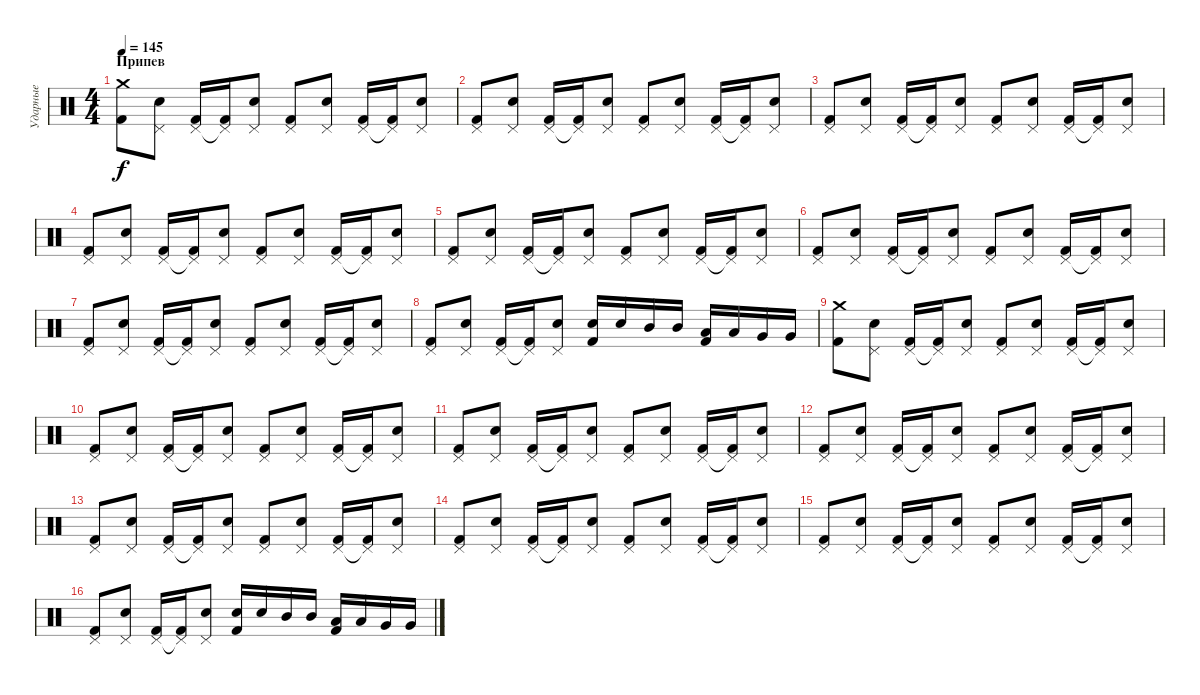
\track ("Ударные" "Ударные") {instrument percussion}
\staff {score}
\articulation defaults
\ts (4 4)
\section ("" "Припев")
\tempo 145
\clef neutral
\ks c
("Crash medium (hit)" "Kick (hit) 2").8{dy f} ("Pedal Hi-Hat (hit)" "Electric Snare (hit)").8 ("Pedal Hi-Hat (hit)" "Kick (hit) 2").16 ("Pedal Hi-Hat (hit)"{t} "Kick (hit) 2").16 ("Pedal Hi-Hat (hit)" "Electric Snare (hit)").8 ("Pedal Hi-Hat (hit)" "Kick (hit) 2").8 ("Pedal Hi-Hat (hit)" "Electric Snare (hit)").8 ("Pedal Hi-Hat (hit)" "Kick (hit) 2").16 ("Pedal Hi-Hat (hit)"{t} "Kick (hit) 2").16 ("Pedal Hi-Hat (hit)" "Electric Snare (hit)").8 |
("Pedal Hi-Hat (hit)" "Kick (hit) 2").8 ("Pedal Hi-Hat (hit)" "Electric Snare (hit)").8 ("Pedal Hi-Hat (hit)" "Kick (hit) 2").16 ("Pedal Hi-Hat (hit)"{t} "Kick (hit) 2").16 ("Pedal Hi-Hat (hit)" "Electric Snare (hit)").8 ("Pedal Hi-Hat (hit)" "Kick (hit) 2").8 ("Pedal Hi-Hat (hit)" "Electric Snare (hit)").8 ("Pedal Hi-Hat (hit)" "Kick (hit) 2").16 ("Pedal Hi-Hat (hit)"{t} "Kick (hit) 2").16 ("Pedal Hi-Hat (hit)" "Electric Snare (hit)").8 |
("Pedal Hi-Hat (hit)" "Kick (hit) 2").8 ("Pedal Hi-Hat (hit)" "Electric Snare (hit)").8 ("Pedal Hi-Hat (hit)" "Kick (hit) 2").16 ("Pedal Hi-Hat (hit)"{t} "Kick (hit) 2").16 ("Pedal Hi-Hat (hit)" "Electric Snare (hit)").8 ("Pedal Hi-Hat (hit)" "Kick (hit) 2").8 ("Pedal Hi-Hat (hit)" "Electric Snare (hit)").8 ("Pedal Hi-Hat (hit)" "Kick (hit) 2").16 ("Pedal Hi-Hat (hit)"{t} "Kick (hit) 2").16 ("Pedal Hi-Hat (hit)" "Electric Snare (hit)").8 |
("Pedal Hi-Hat (hit)" "Kick (hit) 2").8 ("Pedal Hi-Hat (hit)" "Electric Snare (hit)").8 ("Pedal Hi-Hat (hit)" "Kick (hit) 2").16 ("Pedal Hi-Hat (hit)"{t} "Kick (hit) 2").16 ("Pedal Hi-Hat (hit)" "Electric Snare (hit)").8 ("Pedal Hi-Hat (hit)" "Kick (hit) 2").8 ("Pedal Hi-Hat (hit)" "Electric Snare (hit)").8 ("Pedal Hi-Hat (hit)" "Kick (hit) 2").16 ("Pedal Hi-Hat (hit)"{t} "Kick (hit) 2").16 ("Pedal Hi-Hat (hit)" "Electric Snare (hit)").8 |
("Pedal Hi-Hat (hit)" "Kick (hit) 2").8 ("Pedal Hi-Hat (hit)" "Electric Snare (hit)").8 ("Pedal Hi-Hat (hit)" "Kick (hit) 2").16 ("Pedal Hi-Hat (hit)"{t} "Kick (hit) 2").16 ("Pedal Hi-Hat (hit)" "Electric Snare (hit)").8 ("Pedal Hi-Hat (hit)" "Kick (hit) 2").8 ("Pedal Hi-Hat (hit)" "Electric Snare (hit)").8 ("Pedal Hi-Hat (hit)" "Kick (hit) 2").16 ("Pedal Hi-Hat (hit)"{t} "Kick (hit) 2").16 ("Pedal Hi-Hat (hit)" "Electric Snare (hit)").8 |
("Pedal Hi-Hat (hit)" "Kick (hit) 2").8 ("Pedal Hi-Hat (hit)" "Electric Snare (hit)").8 ("Pedal Hi-Hat (hit)" "Kick (hit) 2").16 ("Pedal Hi-Hat (hit)"{t} "Kick (hit) 2").16 ("Pedal Hi-Hat (hit)" "Electric Snare (hit)").8 ("Pedal Hi-Hat (hit)" "Kick (hit) 2").8 ("Pedal Hi-Hat (hit)" "Electric Snare (hit)").8 ("Pedal Hi-Hat (hit)" "Kick (hit) 2").16 ("Pedal Hi-Hat (hit)"{t} "Kick (hit) 2").16 ("Pedal Hi-Hat (hit)" "Electric Snare (hit)").8 |
("Pedal Hi-Hat (hit)" "Kick (hit) 2").8 ("Pedal Hi-Hat (hit)" "Electric Snare (hit)").8 ("Pedal Hi-Hat (hit)" "Kick (hit) 2").16 ("Pedal Hi-Hat (hit)"{t} "Kick (hit) 2").16 ("Pedal Hi-Hat (hit)" "Electric Snare (hit)").8 ("Pedal Hi-Hat (hit)" "Kick (hit) 2").8 ("Pedal Hi-Hat (hit)" "Electric Snare (hit)").8 ("Pedal Hi-Hat (hit)" "Kick (hit) 2").16 ("Pedal Hi-Hat (hit)"{t} "Kick (hit) 2").16 ("Pedal Hi-Hat (hit)" "Electric Snare (hit)").8 |
("Pedal Hi-Hat (hit)" "Kick (hit) 2").8 ("Pedal Hi-Hat (hit)" "Electric Snare (hit)").8 ("Pedal Hi-Hat (hit)" "Kick (hit) 2").16 ("Pedal Hi-Hat (hit)"{t} "Kick (hit) 2").16 ("Pedal Hi-Hat (hit)" "Electric Snare (hit)").8 ("Electric Snare (hit)" "Kick (hit) 2").16 "Electric Snare (hit)".16 "Mid Tom (hit)".16 "Mid Tom (hit)".16 ("Low Tom (hit)" "Kick (hit) 2").16 "Low Tom (hit)".16 "Very Low Tom (hit)".16 "Very Low Tom (hit)".16 |
("Crash medium (hit)" "Kick (hit) 2").8 ("Pedal Hi-Hat (hit)" "Electric Snare (hit)").8 ("Pedal Hi-Hat (hit)" "Kick (hit) 2").16 ("Pedal Hi-Hat (hit)"{t} "Kick (hit) 2").16 ("Pedal Hi-Hat (hit)" "Electric Snare (hit)").8 ("Pedal Hi-Hat (hit)" "Kick (hit) 2").8 ("Pedal Hi-Hat (hit)" "Electric Snare (hit)").8 ("Pedal Hi-Hat (hit)" "Kick (hit) 2").16 ("Pedal Hi-Hat (hit)"{t} "Kick (hit) 2").16 ("Pedal Hi-Hat (hit)" "Electric Snare (hit)").8 |
("Pedal Hi-Hat (hit)" "Kick (hit) 2").8 ("Pedal Hi-Hat (hit)" "Electric Snare (hit)").8 ("Pedal Hi-Hat (hit)" "Kick (hit) 2").16 ("Pedal Hi-Hat (hit)"{t} "Kick (hit) 2").16 ("Pedal Hi-Hat (hit)" "Electric Snare (hit)").8 ("Pedal Hi-Hat (hit)" "Kick (hit) 2").8 ("Pedal Hi-Hat (hit)" "Electric Snare (hit)").8 ("Pedal Hi-Hat (hit)" "Kick (hit) 2").16 ("Pedal Hi-Hat (hit)"{t} "Kick (hit) 2").16 ("Pedal Hi-Hat (hit)" "Electric Snare (hit)").8 |
("Pedal Hi-Hat (hit)" "Kick (hit) 2").8 ("Pedal Hi-Hat (hit)" "Electric Snare (hit)").8 ("Pedal Hi-Hat (hit)" "Kick (hit) 2").16 ("Pedal Hi-Hat (hit)"{t} "Kick (hit) 2").16 ("Pedal Hi-Hat (hit)" "Electric Snare (hit)").8 ("Pedal Hi-Hat (hit)" "Kick (hit) 2").8 ("Pedal Hi-Hat (hit)" "Electric Snare (hit)").8 ("Pedal Hi-Hat (hit)" "Kick (hit) 2").16 ("Pedal Hi-Hat (hit)"{t} "Kick (hit) 2").16 ("Pedal Hi-Hat (hit)" "Electric Snare (hit)").8 |
("Pedal Hi-Hat (hit)" "Kick (hit) 2").8 ("Pedal Hi-Hat (hit)" "Electric Snare (hit)").8 ("Pedal Hi-Hat (hit)" "Kick (hit) 2").16 ("Pedal Hi-Hat (hit)"{t} "Kick (hit) 2").16 ("Pedal Hi-Hat (hit)" "Electric Snare (hit)").8 ("Pedal Hi-Hat (hit)" "Kick (hit) 2").8 ("Pedal Hi-Hat (hit)" "Electric Snare (hit)").8 ("Pedal Hi-Hat (hit)" "Kick (hit) 2").16 ("Pedal Hi-Hat (hit)"{t} "Kick (hit) 2").16 ("Pedal Hi-Hat (hit)" "Electric Snare (hit)").8 |
("Pedal Hi-Hat (hit)" "Kick (hit) 2").8 ("Pedal Hi-Hat (hit)" "Electric Snare (hit)").8 ("Pedal Hi-Hat (hit)" "Kick (hit) 2").16 ("Pedal Hi-Hat (hit)"{t} "Kick (hit) 2").16 ("Pedal Hi-Hat (hit)" "Electric Snare (hit)").8 ("Pedal Hi-Hat (hit)" "Kick (hit) 2").8 ("Pedal Hi-Hat (hit)" "Electric Snare (hit)").8 ("Pedal Hi-Hat (hit)" "Kick (hit) 2").16 ("Pedal Hi-Hat (hit)"{t} "Kick (hit) 2").16 ("Pedal Hi-Hat (hit)" "Electric Snare (hit)").8 |
("Pedal Hi-Hat (hit)" "Kick (hit) 2").8 ("Pedal Hi-Hat (hit)" "Electric Snare (hit)").8 ("Pedal Hi-Hat (hit)" "Kick (hit) 2").16 ("Pedal Hi-Hat (hit)"{t} "Kick (hit) 2").16 ("Pedal Hi-Hat (hit)" "Electric Snare (hit)").8 ("Pedal Hi-Hat (hit)" "Kick (hit) 2").8 ("Pedal Hi-Hat (hit)" "Electric Snare (hit)").8 ("Pedal Hi-Hat (hit)" "Kick (hit) 2").16 ("Pedal Hi-Hat (hit)"{t} "Kick (hit) 2").16 ("Pedal Hi-Hat (hit)" "Electric Snare (hit)").8 |
("Pedal Hi-Hat (hit)" "Kick (hit) 2").8 ("Pedal Hi-Hat (hit)" "Electric Snare (hit)").8 ("Pedal Hi-Hat (hit)" "Kick (hit) 2").16 ("Pedal Hi-Hat (hit)"{t} "Kick (hit) 2").16 ("Pedal Hi-Hat (hit)" "Electric Snare (hit)").8 ("Pedal Hi-Hat (hit)" "Kick (hit) 2").8 ("Pedal Hi-Hat (hit)" "Electric Snare (hit)").8 ("Pedal Hi-Hat (hit)" "Kick (hit) 2").16 ("Pedal Hi-Hat (hit)"{t} "Kick (hit) 2").16 ("Pedal Hi-Hat (hit)" "Electric Snare (hit)").8 |
("Pedal Hi-Hat (hit)" "Kick (hit) 2").8 ("Pedal Hi-Hat (hit)" "Electric Snare (hit)").8 ("Pedal Hi-Hat (hit)" "Kick (hit) 2").16 ("Pedal Hi-Hat (hit)"{t} "Kick (hit) 2").16 ("Pedal Hi-Hat (hit)" "Electric Snare (hit)").8 ("Electric Snare (hit)" "Kick (hit) 2").16 "Electric Snare (hit)".16 "Mid Tom (hit)".16 "Mid Tom (hit)".16 ("Low Tom (hit)" "Kick (hit) 2").16 "Low Tom (hit)".16 "Very Low Tom (hit)".16 "Very Low Tom (hit)".16
